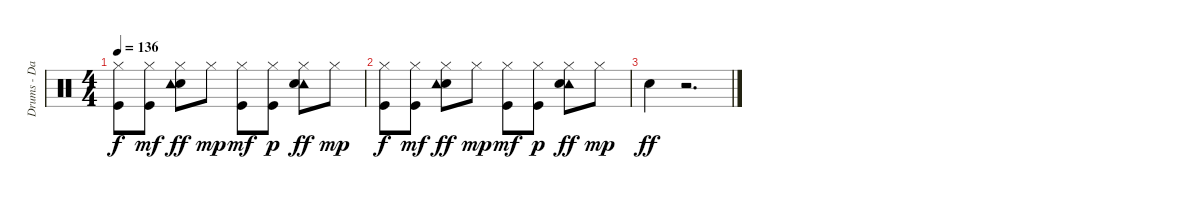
\track ("Drums - Danny Smythe" "Drums - Da") {instrument percussion}
\staff {score}
\articulation defaults
\ts (4 4)
\tempo 136
\clef neutral
\ks c
("Hi-Hat (closed)" "Kick (hit)").8{dy f} ("Hi-Hat (closed)" "Kick (hit)").8{dy mf} ("Hi-Hat (closed)" "Electric Snare (hit)" "Tambourine (hit)").8{dy ff} "Hi-Hat (closed)".8{dy mp} ("Hi-Hat (closed)" "Kick (hit)").8{dy mf} ("Hi-Hat (closed)" "Kick (hit)").8{dy p} ("Tambourine (hit)" "Hi-Hat (closed)" "Electric Snare (hit)").8{dy ff} "Hi-Hat (closed)".8{dy mp} |
("Hi-Hat (closed)" "Kick (hit)").8{dy f} ("Hi-Hat (closed)" "Kick (hit)").8{dy mf} ("Hi-Hat (closed)" "Electric Snare (hit)" "Tambourine (hit)").8{dy ff} "Hi-Hat (closed)".8{dy mp} ("Hi-Hat (closed)" "Kick (hit)").8{dy mf} ("Hi-Hat (closed)" "Kick (hit)").8{dy p} ("Tambourine (hit)" "Hi-Hat (closed)" "Electric Snare (hit)").8{dy ff} "Hi-Hat (closed)".8{dy mp} |
"Electric Snare (hit)".4{dy ff} r.2{d}
